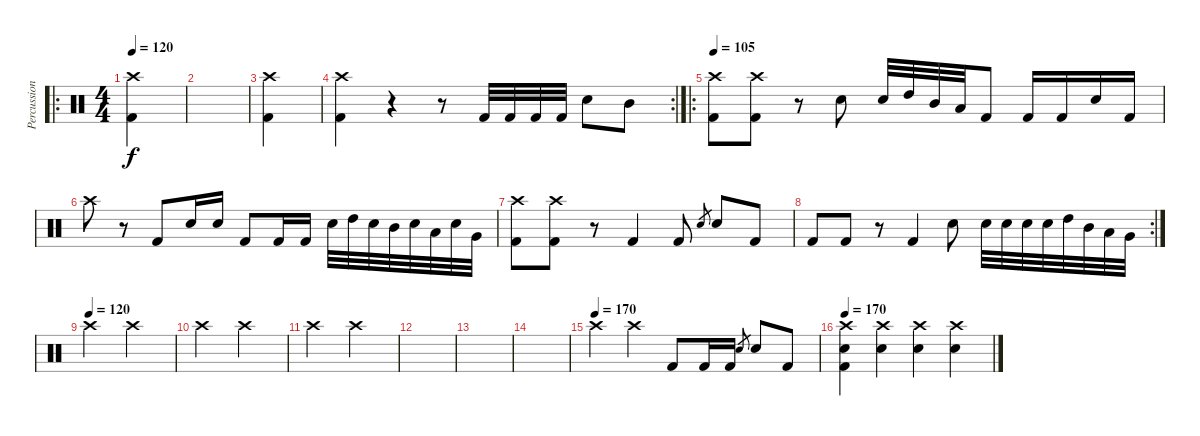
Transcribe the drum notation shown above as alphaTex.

\track ("Percussion" "Percussion") {instrument percussion}
\staff {score}
\articulation defaults
\ro
\ts (4 4)
\tempo 120
\tempo 105
\tempo 120
\clef neutral
\ks c
("Crash high (hit)" "Kick (hit) 2").4{dy f} |
|
("Crash high (hit)" "Kick (hit) 2").4 |
\rc 2
("Crash high (hit)" "Kick (hit) 2").4 r.4 r.8 "Kick (hit) 2".32 "Kick (hit) 2".32 "Kick (hit) 2".32 "Kick (hit) 2".32 "Electric Snare (hit)".8 "Mid Tom (hit)".8 |
\ro
\tempo 105
("Crash high (hit)" "Kick (hit) 2").8 ("Crash high (hit)" "Kick (hit) 2").8 r.8 "Electric Snare (hit)".8 "Electric Snare (hit)".32 "High Tom (hit)".32 "Mid Tom (hit)".32 "Low Tom (hit)".32 "Kick (hit) 2".8 "Kick (hit) 2".16 "Kick (hit) 2".16 "Electric Snare (hit)".16 "Kick (hit) 2".16 |
"Crash high (hit)".8 r.8 "Kick (hit) 2".8 "Electric Snare (hit)".16 "Electric Snare (hit)".16 "Kick (hit) 2".8 "Kick (hit) 2".16 "Kick (hit) 2".16 "Electric Snare (hit)".32 "High Tom (hit)".32 "Electric Snare (hit)".32 "Mid Tom (hit)".32 "Electric Snare (hit)".32 "Low Tom (hit)".32 "Electric Snare (hit)".32 "Very Low Tom (hit)".32 |
("Crash high (hit)" "Kick (hit) 2").8 ("Crash high (hit)" "Kick (hit) 2").8 r.8 "Kick (hit) 2".4 "Kick (hit) 2".8 "Electric Snare (hit)".8{gr} "Electric Snare (hit)".8 "Kick (hit) 2".8 |
\rc 2 "Kick (hit) 2".8 "Kick (hit) 2".8
r.8 "Kick (hit) 2".4 "Electric Snare (hit)".8 "Electric Snare (hit)".32 "Electric Snare (hit)".32 "Electric Snare (hit)".32 "Electric Snare (hit)".32 "High Tom (hit)".32 "Mid Tom (hit)".32 "Low Tom (hit)".32 "Very Low Tom (hit)".32 |
\tempo (120)
"Crash high (hit)".2 "Crash high (hit)".2 |
"Crash high (hit)".2 "Crash high (hit)".2 |
"Crash high (hit)".2 "Crash high (hit)".2 |
|
|
|
\tempo (170)
"Crash high (hit)".4 "Crash high (hit)".4 "Kick (hit) 2".8 "Kick (hit) 2".16 "Kick (hit) 2".16 "Electric Snare (hit)".8{gr} "Electric Snare (hit)".8 "Kick (hit) 2".8 |
\tempo 170
("Crash high (hit)" "Electric Snare (hit)" "Kick (hit) 2").4 ("Crash high (hit)" "Electric Snare (hit)").4 ("Crash high (hit)" "Electric Snare (hit)").4 ("Crash high (hit)" "Electric Snare (hit)").4
